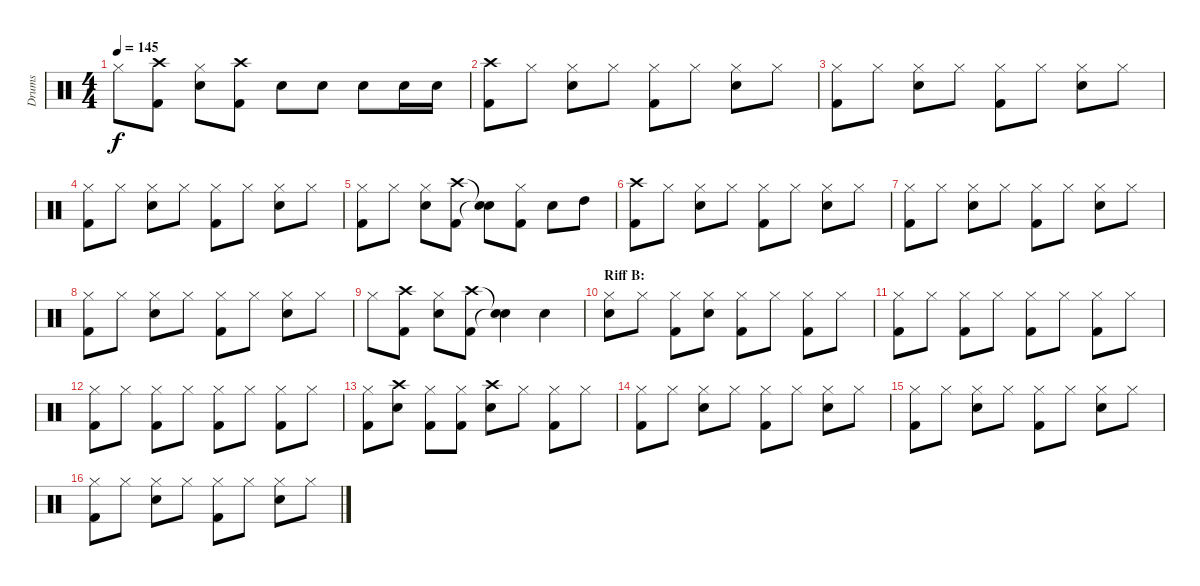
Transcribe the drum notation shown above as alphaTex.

\track ("Drums" "Drums") {instrument percussion}
\staff {score}
\articulation defaults
\ts (4 4)
\tempo 145
\clef neutral
\ks c "Hi-Hat (closed)".8{dy f}
("Crash high (hit)" "Kick (hit) 2").8 ("Hi-Hat (closed)" "Electric Snare (hit)").8 ("Crash high (hit)" "Kick (hit) 2").8 "Electric Snare (hit)".8 "Electric Snare (hit)".8 "Electric Snare (hit)".8 "Electric Snare (hit)".16 "Electric Snare (hit)".16 |
("Crash high (hit)" "Kick (hit) 2").8 "Hi-Hat (closed)".8 ("Hi-Hat (closed)" "Electric Snare (hit)").8 "Hi-Hat (closed)".8 ("Hi-Hat (closed)" "Kick (hit) 2").8 "Hi-Hat (closed)".8 ("Hi-Hat (closed)" "Electric Snare (hit)").8 "Hi-Hat (closed)".8 |
("Hi-Hat (closed)" "Kick (hit) 2").8 "Hi-Hat (closed)".8 ("Hi-Hat (closed)" "Electric Snare (hit)").8 "Hi-Hat (closed)".8 ("Hi-Hat (closed)" "Kick (hit) 2").8 "Hi-Hat (closed)".8 ("Hi-Hat (closed)" "Electric Snare (hit)").8 "Hi-Hat (closed)".8 |
("Hi-Hat (closed)" "Kick (hit) 2").8 "Hi-Hat (closed)".8 ("Hi-Hat (closed)" "Electric Snare (hit)").8 "Hi-Hat (closed)".8 ("Hi-Hat (closed)" "Kick (hit) 2").8 "Hi-Hat (closed)".8 ("Hi-Hat (closed)" "Electric Snare (hit)").8 "Hi-Hat (closed)".8 |
("Hi-Hat (closed)" "Kick (hit) 2").8 "Hi-Hat (closed)".8 ("Hi-Hat (closed)" "Electric Snare (hit)").8 ("Crash high (hit)" "Kick (hit) 2").8 ("Snare (hit)"{t} "Snare (hit)"{t}).8 ("Hi-Hat (closed)" "Kick (hit) 2").8 "Electric Snare (hit)".8 "High Tom (hit)".8 |
("Crash high (hit)" "Kick (hit) 2").8 "Hi-Hat (closed)".8 ("Hi-Hat (closed)" "Electric Snare (hit)").8 "Hi-Hat (closed)".8 ("Hi-Hat (closed)" "Kick (hit) 2").8 "Hi-Hat (closed)".8 ("Hi-Hat (closed)" "Electric Snare (hit)").8 "Hi-Hat (closed)".8 |
("Hi-Hat (closed)" "Kick (hit) 2").8 "Hi-Hat (closed)".8 ("Hi-Hat (closed)" "Electric Snare (hit)").8 "Hi-Hat (closed)".8 ("Hi-Hat (closed)" "Kick (hit) 2").8 "Hi-Hat (closed)".8 ("Hi-Hat (closed)" "Electric Snare (hit)").8 "Hi-Hat (closed)".8 |
("Hi-Hat (closed)" "Kick (hit) 2").8 "Hi-Hat (closed)".8 ("Hi-Hat (closed)" "Electric Snare (hit)").8 "Hi-Hat (closed)".8 ("Hi-Hat (closed)" "Kick (hit) 2").8 "Hi-Hat (closed)".8 ("Hi-Hat (closed)" "Electric Snare (hit)").8 "Hi-Hat (closed)".8 |
"Hi-Hat (closed)".8 ("Crash high (hit)" "Kick (hit) 2").8 ("Hi-Hat (closed)" "Electric Snare (hit)").8 ("Crash high (hit)" "Kick (hit) 2").8 ("Snare (hit)"{t} "Snare (hit)"{t}).4 "Electric Snare (hit)".4 |
\section ("" "Riff B:")
("Hi-Hat (closed)" "Electric Snare (hit)").8 "Hi-Hat (closed)".8 ("Hi-Hat (closed)" "Kick (hit) 2").8 ("Hi-Hat (closed)" "Electric Snare (hit)").8 ("Hi-Hat (closed)" "Kick (hit) 2").8 "Hi-Hat (closed)".8 ("Hi-Hat (closed)" "Kick (hit) 2").8 "Hi-Hat (closed)".8 |
("Hi-Hat (closed)" "Kick (hit) 2").8 "Hi-Hat (closed)".8 ("Hi-Hat (closed)" "Kick (hit) 2").8 "Hi-Hat (closed)".8 ("Hi-Hat (closed)" "Kick (hit) 2").8 "Hi-Hat (closed)".8 ("Hi-Hat (closed)" "Kick (hit) 2").8 "Hi-Hat (closed)".8 |
("Hi-Hat (closed)" "Kick (hit) 2").8 "Hi-Hat (closed)".8 ("Hi-Hat (closed)" "Kick (hit) 2").8 "Hi-Hat (closed)".8 ("Hi-Hat (closed)" "Kick (hit) 2").8 "Hi-Hat (closed)".8 ("Hi-Hat (closed)" "Kick (hit) 2").8 "Hi-Hat (closed)".8 |
("Hi-Hat (closed)" "Kick (hit) 2").8 ("Crash high (hit)" "Electric Snare (hit)").8 ("Hi-Hat (closed)" "Kick (hit) 2").8 ("Hi-Hat (closed)" "Kick (hit) 2").8 ("Crash high (hit)" "Electric Snare (hit)").8 "Hi-Hat (closed)".8 ("Hi-Hat (closed)" "Kick (hit) 2").8 "Hi-Hat (closed)".8 |
("Hi-Hat (closed)" "Kick (hit) 2").8 "Hi-Hat (closed)".8 ("Hi-Hat (closed)" "Electric Snare (hit)").8 "Hi-Hat (closed)".8 ("Hi-Hat (closed)" "Kick (hit) 2").8 "Hi-Hat (closed)".8 ("Hi-Hat (closed)" "Electric Snare (hit)").8 "Hi-Hat (closed)".8 |
("Hi-Hat (closed)" "Kick (hit) 2").8 "Hi-Hat (closed)".8 ("Hi-Hat (closed)" "Electric Snare (hit)").8 "Hi-Hat (closed)".8 ("Hi-Hat (closed)" "Kick (hit) 2").8 "Hi-Hat (closed)".8 ("Hi-Hat (closed)" "Electric Snare (hit)").8 "Hi-Hat (closed)".8 |
("Hi-Hat (closed)" "Kick (hit) 2").8 "Hi-Hat (closed)".8 ("Hi-Hat (closed)" "Electric Snare (hit)").8 "Hi-Hat (closed)".8 ("Hi-Hat (closed)" "Kick (hit) 2").8 "Hi-Hat (closed)".8 ("Hi-Hat (closed)" "Electric Snare (hit)").8 "Hi-Hat (closed)".8
